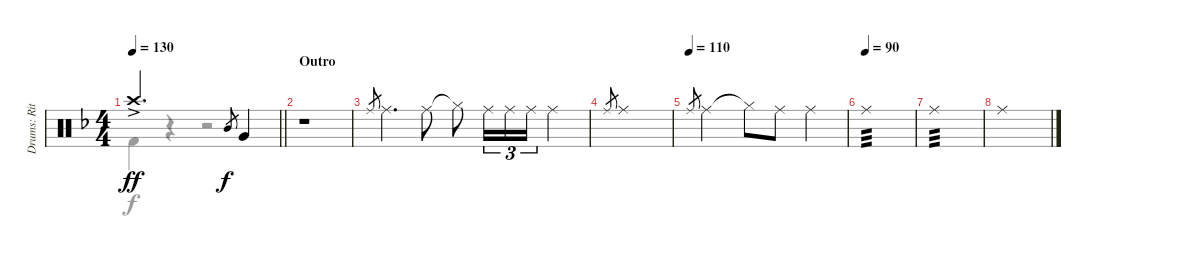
\track ("Drums: Ritsu Tianaka" "Drums: Rit") {instrument percussion}
\staff {score}
\articulation defaults
\voice
\ts (4 4)
\tempo 130
\clef neutral
\barLineRight lightlight
\ks f "Crash high (hit)"{ac}.2{d dy ff} "Mid Tom (hit)".8{gr dy f} "Very Low Tom (hit)".4
|
\section ("" "Outro")
r.1 |
"Ride (middle)".8{gr} "Ride (middle)".4{d} "Ride (middle)".8 "Hi-Hat (closed)"{t}.8 "Ride (middle)".16{tu (3 2)} "Ride (middle)".16{tu (3 2)} "Ride (middle)".16{tu (3 2)} "Ride (middle)".4 |
"Ride (middle)".8{gr} "Ride (middle)".1 |
\tempo (110)
"Ride (middle)".8{gr} "Ride (middle)".2 "Hi-Hat (closed)"{t}.8 "Ride (middle)".8 "Ride (middle)".4 |
\tempo (90)
"Ride (middle)".1{tp 3} |
"Ride (middle)".1{tp 3} |
"Ride (middle)".1
\voice
\clef neutral
\ottava regular
\simile none
\barLineRight lightlight
\ks f "Kick (hit) 2".4{dy f}
r.4 r.2 |
|
|
|
|
|
|
